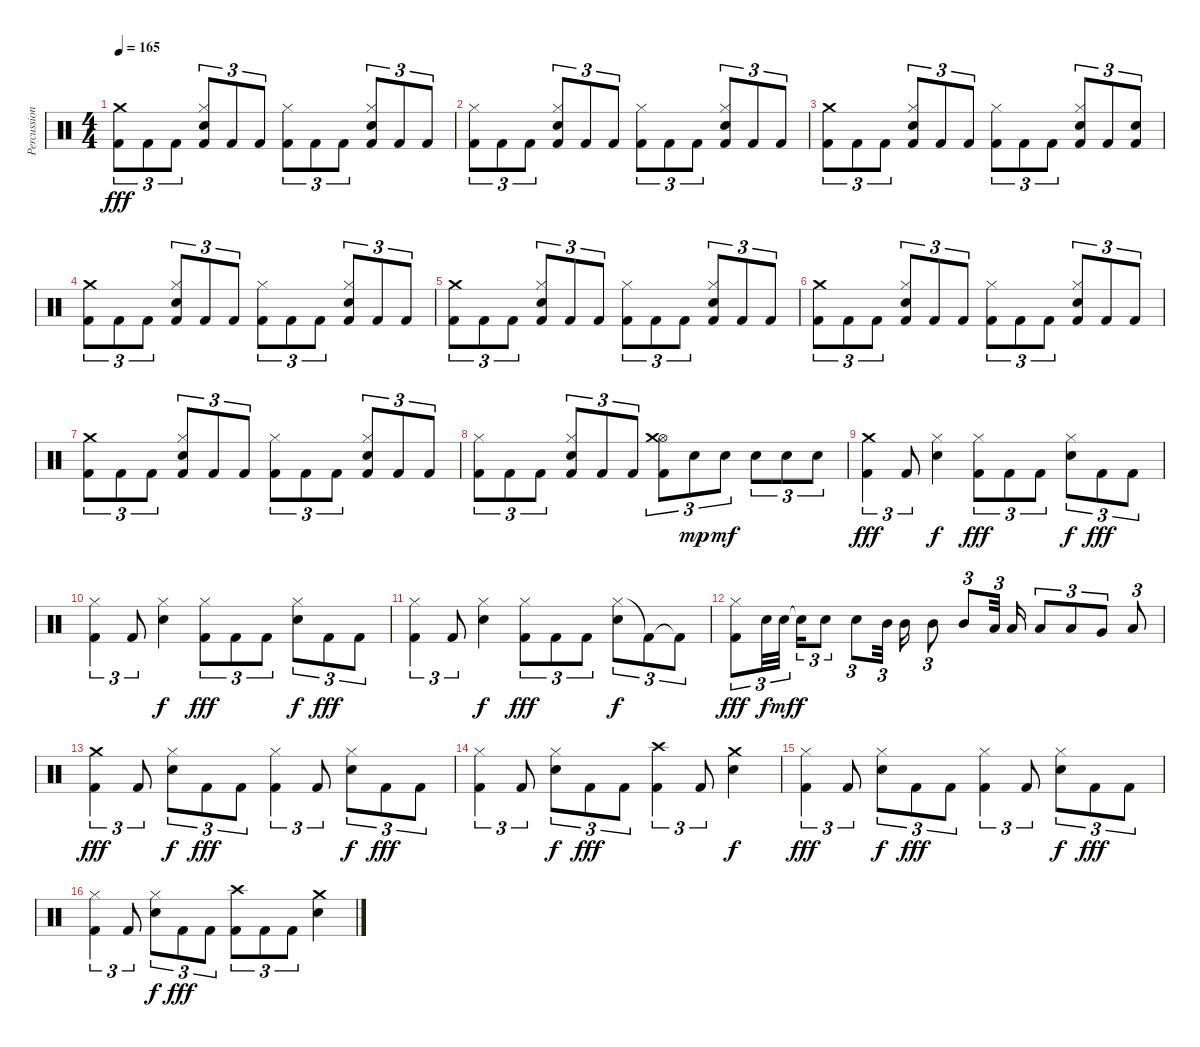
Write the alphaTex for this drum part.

\track ("Percussion" "Percussion") {instrument percussion}
\staff {score}
\articulation defaults
\ts (4 4)
\tempo 165
\clef neutral
\ks c
("Crash medium (hit)" "Kick (hit) 2").8{tu (3 2) dy fff} "Kick (hit) 2".8{tu (3 2)} "Kick (hit) 2".8{tu (3 2)} ("Hi-Hat (closed)" "Electric Snare (hit)" "Kick (hit) 2").8{tu (3 2)} "Kick (hit) 2".8{tu (3 2)} "Kick (hit) 2".8{tu (3 2)} ("Hi-Hat (closed)" "Kick (hit) 2").8{tu (3 2)} "Kick (hit) 2".8{tu (3 2)} "Kick (hit) 2".8{tu (3 2)} ("Hi-Hat (closed)" "Electric Snare (hit)" "Kick (hit) 2").8{tu (3 2)} "Kick (hit) 2".8{tu (3 2)} "Kick (hit) 2".8{tu (3 2)} |
("Hi-Hat (closed)" "Kick (hit) 2").8{tu (3 2)} "Kick (hit) 2".8{tu (3 2)} "Kick (hit) 2".8{tu (3 2)} ("Hi-Hat (closed)" "Electric Snare (hit)" "Kick (hit) 2").8{tu (3 2)} "Kick (hit) 2".8{tu (3 2)} "Kick (hit) 2".8{tu (3 2)} ("Hi-Hat (closed)" "Kick (hit) 2").8{tu (3 2)} "Kick (hit) 2".8{tu (3 2)} "Kick (hit) 2".8{tu (3 2)} ("Hi-Hat (closed)" "Electric Snare (hit)" "Kick (hit) 2").8{tu (3 2)} "Kick (hit) 2".8{tu (3 2)} "Kick (hit) 2".8{tu (3 2)} |
("Crash medium (hit)" "Kick (hit) 2").8{tu (3 2)} "Kick (hit) 2".8{tu (3 2)} "Kick (hit) 2".8{tu (3 2)} ("Hi-Hat (closed)" "Electric Snare (hit)" "Kick (hit) 2").8{tu (3 2)} "Kick (hit) 2".8{tu (3 2)} "Kick (hit) 2".8{tu (3 2)} ("Hi-Hat (closed)" "Kick (hit) 2").8{tu (3 2)} "Kick (hit) 2".8{tu (3 2)} "Kick (hit) 2".8{tu (3 2)} ("Hi-Hat (closed)" "Electric Snare (hit)" "Kick (hit) 2").8{tu (3 2)} "Kick (hit) 2".8{tu (3 2)} ("Electric Snare (hit)" "Kick (hit) 2").8{tu (3 2)} |
("Crash medium (hit)" "Kick (hit) 2").8{tu (3 2)} "Kick (hit) 2".8{tu (3 2)} "Kick (hit) 2".8{tu (3 2)} ("Hi-Hat (closed)" "Electric Snare (hit)" "Kick (hit) 2").8{tu (3 2)} "Kick (hit) 2".8{tu (3 2)} "Kick (hit) 2".8{tu (3 2)} ("Hi-Hat (closed)" "Kick (hit) 2").8{tu (3 2)} "Kick (hit) 2".8{tu (3 2)} "Kick (hit) 2".8{tu (3 2)} ("Hi-Hat (closed)" "Electric Snare (hit)" "Kick (hit) 2").8{tu (3 2)} "Kick (hit) 2".8{tu (3 2)} "Kick (hit) 2".8{tu (3 2)} |
("Crash medium (hit)" "Kick (hit) 2").8{tu (3 2)} "Kick (hit) 2".8{tu (3 2)} "Kick (hit) 2".8{tu (3 2)} ("Hi-Hat (closed)" "Electric Snare (hit)" "Kick (hit) 2").8{tu (3 2)} "Kick (hit) 2".8{tu (3 2)} "Kick (hit) 2".8{tu (3 2)} ("Hi-Hat (closed)" "Kick (hit) 2").8{tu (3 2)} "Kick (hit) 2".8{tu (3 2)} "Kick (hit) 2".8{tu (3 2)} ("Hi-Hat (closed)" "Electric Snare (hit)" "Kick (hit) 2").8{tu (3 2)} "Kick (hit) 2".8{tu (3 2)} "Kick (hit) 2".8{tu (3 2)} |
("Crash medium (hit)" "Kick (hit) 2").8{tu (3 2)} "Kick (hit) 2".8{tu (3 2)} "Kick (hit) 2".8{tu (3 2)} ("Hi-Hat (closed)" "Electric Snare (hit)" "Kick (hit) 2").8{tu (3 2)} "Kick (hit) 2".8{tu (3 2)} "Kick (hit) 2".8{tu (3 2)} ("Hi-Hat (closed)" "Kick (hit) 2").8{tu (3 2)} "Kick (hit) 2".8{tu (3 2)} "Kick (hit) 2".8{tu (3 2)} ("Hi-Hat (closed)" "Electric Snare (hit)" "Kick (hit) 2").8{tu (3 2)} "Kick (hit) 2".8{tu (3 2)} "Kick (hit) 2".8{tu (3 2)} |
("Crash medium (hit)" "Kick (hit) 2").8{tu (3 2)} "Kick (hit) 2".8{tu (3 2)} "Kick (hit) 2".8{tu (3 2)} ("Hi-Hat (closed)" "Electric Snare (hit)" "Kick (hit) 2").8{tu (3 2)} "Kick (hit) 2".8{tu (3 2)} "Kick (hit) 2".8{tu (3 2)} ("Hi-Hat (closed)" "Kick (hit) 2").8{tu (3 2)} "Kick (hit) 2".8{tu (3 2)} "Kick (hit) 2".8{tu (3 2)} ("Hi-Hat (closed)" "Electric Snare (hit)" "Kick (hit) 2").8{tu (3 2)} "Kick (hit) 2".8{tu (3 2)} "Kick (hit) 2".8{tu (3 2)} |
("Hi-Hat (closed)" "Kick (hit) 2").8{tu (3 2)} "Kick (hit) 2".8{tu (3 2)} "Kick (hit) 2".8{tu (3 2)} ("Hi-Hat (closed)" "Electric Snare (hit)" "Kick (hit) 2").8{tu (3 2)} "Kick (hit) 2".8{tu (3 2)} "Kick (hit) 2".8{tu (3 2)} ("Hi-Hat (open)" "Crash medium (hit)" "Kick (hit) 2").8{tu (3 2)} "Electric Snare (hit)".8{tu (3 2) dy mp} "Electric Snare (hit)".8{tu (3 2) dy mf} "Electric Snare (hit)".8{tu (3 2)} "Electric Snare (hit)".8{tu (3 2)} "Electric Snare (hit)".8{tu (3 2)} |
("Crash medium (hit)" "Kick (hit) 2").4{tu (3 2) dy fff} "Kick (hit) 2".8{tu (3 2)} ("Hi-Hat (closed)" "Electric Snare (hit)").4{dy f} ("Hi-Hat (closed)" "Kick (hit) 2").8{tu (3 2) dy fff} "Kick (hit) 2".8{tu (3 2)} "Kick (hit) 2".8{tu (3 2)} ("Hi-Hat (closed)" "Electric Snare (hit)").8{tu (3 2) dy f} "Kick (hit) 2".8{tu (3 2) dy fff} "Kick (hit) 2".8{tu (3 2)} |
("Hi-Hat (closed)" "Kick (hit) 2").4{tu (3 2)} "Kick (hit) 2".8{tu (3 2)} ("Hi-Hat (closed)" "Electric Snare (hit)").4{dy f} ("Hi-Hat (closed)" "Kick (hit) 2").8{tu (3 2) dy fff} "Kick (hit) 2".8{tu (3 2)} "Kick (hit) 2".8{tu (3 2)} ("Hi-Hat (closed)" "Electric Snare (hit)").8{tu (3 2) dy f} "Kick (hit) 2".8{tu (3 2) dy fff} "Kick (hit) 2".8{tu (3 2)} |
("Hi-Hat (closed)" "Kick (hit) 2").4{tu (3 2)} "Kick (hit) 2".8{tu (3 2)} ("Hi-Hat (closed)" "Electric Snare (hit)").4{dy f} ("Hi-Hat (closed)" "Kick (hit) 2").8{tu (3 2) dy fff} "Kick (hit) 2".8{tu (3 2)} "Kick (hit) 2".8{tu (3 2)} ("Hi-Hat (closed)" "Electric Snare (hit)").8{tu (3 2) dy f} "Kick (hit) 2"{t}.8{tu (3 2)} "Kick (hit) 2"{t}.8{tu (3 2)} |
("Hi-Hat (closed)" "Kick (hit) 2").8{tu (3 2) dy fff} "Electric Snare (hit)".32{tu (3 2) dy f} "Electric Snare (hit)".32{tu (3 2) dy mf} "Snare (hit)"{t}.16{tu (3 2) dy f} "Electric Snare (hit)".8{tu (3 2)} "Electric Snare (hit)".8{tu (3 2)} "Mid Tom (hit)".32{tu (3 2)} "Mid Tom (hit)".16 "Mid Tom (hit)".8{tu (3 2)} "Mid Tom (hit)".8{tu (3 2)} "Low Tom (hit)".32{tu (3 2)} "Low Tom (hit)".16 "Low Tom (hit)".8{tu (3 2)} "Low Tom (hit)".8{tu (3 2)} "Very Low Tom (hit)".8{tu (3 2)} "Low Floor Tom (hit)".8{tu (3 2)} |
("Crash medium (hit)" "Kick (hit) 2").4{tu (3 2) dy fff} "Kick (hit) 2".8{tu (3 2)} ("Hi-Hat (closed)" "Electric Snare (hit)").8{tu (3 2) dy f} "Kick (hit) 2".8{tu (3 2) dy fff} "Kick (hit) 2".8{tu (3 2)} ("Hi-Hat (closed)" "Kick (hit) 2").4{tu (3 2)} "Kick (hit) 2".8{tu (3 2)} ("Hi-Hat (closed)" "Electric Snare (hit)").8{tu (3 2) dy f} "Kick (hit) 2".8{tu (3 2) dy fff} "Kick (hit) 2".8{tu (3 2)} |
("Hi-Hat (closed)" "Kick (hit) 2").4{tu (3 2)} "Kick (hit) 2".8{tu (3 2)} ("Hi-Hat (closed)" "Electric Snare (hit)").8{tu (3 2) dy f} "Kick (hit) 2".8{tu (3 2) dy fff} "Kick (hit) 2".8{tu (3 2)} ("Crash high (hit)" "Kick (hit) 2").4{tu (3 2)} "Kick (hit) 2".8{tu (3 2)} ("Crash medium (hit)" "Electric Snare (hit)").4{dy f} |
("Hi-Hat (closed)" "Kick (hit) 2").4{tu (3 2) dy fff} "Kick (hit) 2".8{tu (3 2)} ("Hi-Hat (closed)" "Electric Snare (hit)").8{tu (3 2) dy f} "Kick (hit) 2".8{tu (3 2) dy fff} "Kick (hit) 2".8{tu (3 2)} ("Hi-Hat (closed)" "Kick (hit) 2").4{tu (3 2)} "Kick (hit) 2".8{tu (3 2)} ("Hi-Hat (closed)" "Electric Snare (hit)").8{tu (3 2) dy f} "Kick (hit) 2".8{tu (3 2) dy fff} "Kick (hit) 2".8{tu (3 2)} |
("Hi-Hat (closed)" "Kick (hit) 2").4{tu (3 2)} "Kick (hit) 2".8{tu (3 2)} ("Hi-Hat (closed)" "Electric Snare (hit)").8{tu (3 2) dy f} "Kick (hit) 2".8{tu (3 2) dy fff} "Kick (hit) 2".8{tu (3 2)} ("Crash high (hit)" "Kick (hit) 2").8{tu (3 2)} "Kick (hit) 2".8{tu (3 2)} "Kick (hit) 2".8{tu (3 2)} ("Crash medium (hit)" "Electric Snare (hit)").4
